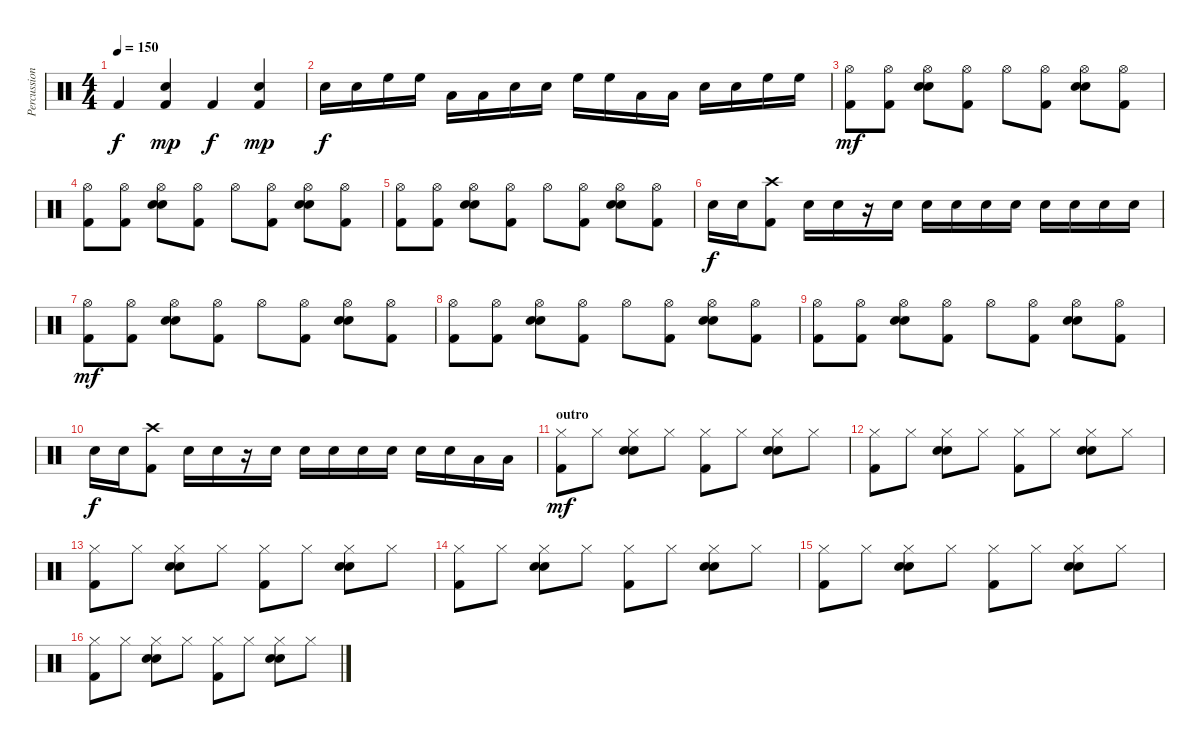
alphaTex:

\track ("Percussions" "Percussion") {instrument percussion}
\staff {score}
\articulation defaults
\ts (4 4)
\tempo 150
\clef neutral
\ks c "Kick (hit) 2".4{dy f}
("Kick (hit) 2" "Hand Clap (hit)").4{dy mp} "Kick (hit) 2".4{dy f} ("Kick (hit) 2" "Hand Clap (hit)").4{dy mp} |
"Snare (hit) 2".16{dy f} "Snare (hit) 2".16 "High Floor Tom (hit)".16 "High Floor Tom (hit)".16 "Low Tom (hit)".16 "Low Tom (hit)".16 "Snare (hit) 2".16 "Snare (hit) 2".16 "High Floor Tom (hit)".16 "High Floor Tom (hit)".16 "Low Tom (hit)".16 "Low Tom (hit)".16 "Snare (hit) 2".16 "Snare (hit) 2".16 "High Floor Tom (hit)".16 "High Floor Tom (hit)".16 |
("Hi-Hat (open)" "Kick (hit) 2").8{dy mf} ("Hi-Hat (open)" "Kick (hit) 2").8 ("Hi-Hat (open)" "Electric Snare (hit)" "Snare (hit) 2").8 ("Hi-Hat (open)" "Kick (hit) 2").8 "Hi-Hat (open)".8 ("Hi-Hat (open)" "Kick (hit) 2").8 ("Hi-Hat (open)" "Electric Snare (hit)" "Snare (hit) 2").8 ("Hi-Hat (open)" "Kick (hit) 2").8 |
("Hi-Hat (open)" "Kick (hit) 2").8 ("Hi-Hat (open)" "Kick (hit) 2").8 ("Hi-Hat (open)" "Electric Snare (hit)" "Snare (hit) 2").8 ("Hi-Hat (open)" "Kick (hit) 2").8 "Hi-Hat (open)".8 ("Hi-Hat (open)" "Kick (hit) 2").8 ("Hi-Hat (open)" "Electric Snare (hit)" "Snare (hit) 2").8 ("Hi-Hat (open)" "Kick (hit) 2").8 |
("Hi-Hat (open)" "Kick (hit) 2").8 ("Hi-Hat (open)" "Kick (hit) 2").8 ("Hi-Hat (open)" "Electric Snare (hit)" "Snare (hit) 2").8 ("Hi-Hat (open)" "Kick (hit) 2").8 "Hi-Hat (open)".8 ("Hi-Hat (open)" "Kick (hit) 2").8 ("Hi-Hat (open)" "Electric Snare (hit)" "Snare (hit) 2").8 ("Hi-Hat (open)" "Kick (hit) 2").8 |
"Snare (hit) 2".16{dy f} "Snare (hit) 2".16 ("Kick (hit) 2" "Crash high (hit)").8 "Snare (hit) 2".16 "Snare (hit) 2".16 r.16 "Snare (hit) 2".16 "Snare (hit) 2".16 "Snare (hit) 2".16 "Snare (hit) 2".16 "Snare (hit) 2".16 "Snare (hit) 2".16 "Snare (hit) 2".16 "Snare (hit) 2".16 "Snare (hit) 2".16 |
("Hi-Hat (open)" "Kick (hit) 2").8{dy mf} ("Hi-Hat (open)" "Kick (hit) 2").8 ("Hi-Hat (open)" "Electric Snare (hit)" "Snare (hit) 2").8 ("Hi-Hat (open)" "Kick (hit) 2").8 "Hi-Hat (open)".8 ("Hi-Hat (open)" "Kick (hit) 2").8 ("Hi-Hat (open)" "Electric Snare (hit)" "Snare (hit) 2").8 ("Hi-Hat (open)" "Kick (hit) 2").8 |
("Hi-Hat (open)" "Kick (hit) 2").8 ("Hi-Hat (open)" "Kick (hit) 2").8 ("Hi-Hat (open)" "Electric Snare (hit)" "Snare (hit) 2").8 ("Hi-Hat (open)" "Kick (hit) 2").8 "Hi-Hat (open)".8 ("Hi-Hat (open)" "Kick (hit) 2").8 ("Hi-Hat (open)" "Electric Snare (hit)" "Snare (hit) 2").8 ("Hi-Hat (open)" "Kick (hit) 2").8 |
("Hi-Hat (open)" "Kick (hit) 2").8 ("Hi-Hat (open)" "Kick (hit) 2").8 ("Hi-Hat (open)" "Electric Snare (hit)" "Snare (hit) 2").8 ("Hi-Hat (open)" "Kick (hit) 2").8 "Hi-Hat (open)".8 ("Hi-Hat (open)" "Kick (hit) 2").8 ("Hi-Hat (open)" "Electric Snare (hit)" "Snare (hit) 2").8 ("Hi-Hat (open)" "Kick (hit) 2").8 |
"Snare (hit) 2".16{dy f} "Snare (hit) 2".16 ("Kick (hit) 2" "Crash high (hit)").8 "Snare (hit) 2".16 "Snare (hit) 2".16 r.16 "Snare (hit) 2".16 "Snare (hit) 2".16 "Snare (hit) 2".16 "Snare (hit) 2".16 "Snare (hit) 2".16 "Snare (hit) 2".16 "Snare (hit) 2".16 "Low Tom (hit)".16 "Low Tom (hit)".16 |
\section ("" "outro")
("Kick (hit) 2" "Hi-Hat (closed)").8{dy mf} "Hi-Hat (closed)".8 ("Snare (hit) 2" "Electric Snare (hit)" "Hi-Hat (closed)").8 "Hi-Hat (closed)".8 ("Kick (hit) 2" "Hi-Hat (closed)").8 "Hi-Hat (closed)".8 ("Snare (hit) 2" "Electric Snare (hit)" "Hi-Hat (closed)").8 "Hi-Hat (closed)".8 |
("Kick (hit) 2" "Hi-Hat (closed)").8 "Hi-Hat (closed)".8 ("Snare (hit) 2" "Electric Snare (hit)" "Hi-Hat (closed)").8 "Hi-Hat (closed)".8 ("Kick (hit) 2" "Hi-Hat (closed)").8 "Hi-Hat (closed)".8 ("Snare (hit) 2" "Electric Snare (hit)" "Hi-Hat (closed)").8 "Hi-Hat (closed)".8 |
("Kick (hit) 2" "Hi-Hat (closed)").8 "Hi-Hat (closed)".8 ("Snare (hit) 2" "Electric Snare (hit)" "Hi-Hat (closed)").8 "Hi-Hat (closed)".8 ("Kick (hit) 2" "Hi-Hat (closed)").8 "Hi-Hat (closed)".8 ("Snare (hit) 2" "Electric Snare (hit)" "Hi-Hat (closed)").8 "Hi-Hat (closed)".8 |
("Kick (hit) 2" "Hi-Hat (closed)").8 "Hi-Hat (closed)".8 ("Snare (hit) 2" "Electric Snare (hit)" "Hi-Hat (closed)").8 "Hi-Hat (closed)".8 ("Kick (hit) 2" "Hi-Hat (closed)").8 "Hi-Hat (closed)".8 ("Snare (hit) 2" "Electric Snare (hit)" "Hi-Hat (closed)").8 "Hi-Hat (closed)".8 |
("Kick (hit) 2" "Hi-Hat (closed)").8 "Hi-Hat (closed)".8 ("Snare (hit) 2" "Electric Snare (hit)" "Hi-Hat (closed)").8 "Hi-Hat (closed)".8 ("Kick (hit) 2" "Hi-Hat (closed)").8 "Hi-Hat (closed)".8 ("Snare (hit) 2" "Electric Snare (hit)" "Hi-Hat (closed)").8 "Hi-Hat (closed)".8 |
("Kick (hit) 2" "Hi-Hat (closed)").8 "Hi-Hat (closed)".8 ("Snare (hit) 2" "Electric Snare (hit)" "Hi-Hat (closed)").8 "Hi-Hat (closed)".8 ("Kick (hit) 2" "Hi-Hat (closed)").8 "Hi-Hat (closed)".8 ("Snare (hit) 2" "Electric Snare (hit)" "Hi-Hat (closed)").8 "Hi-Hat (closed)".8
